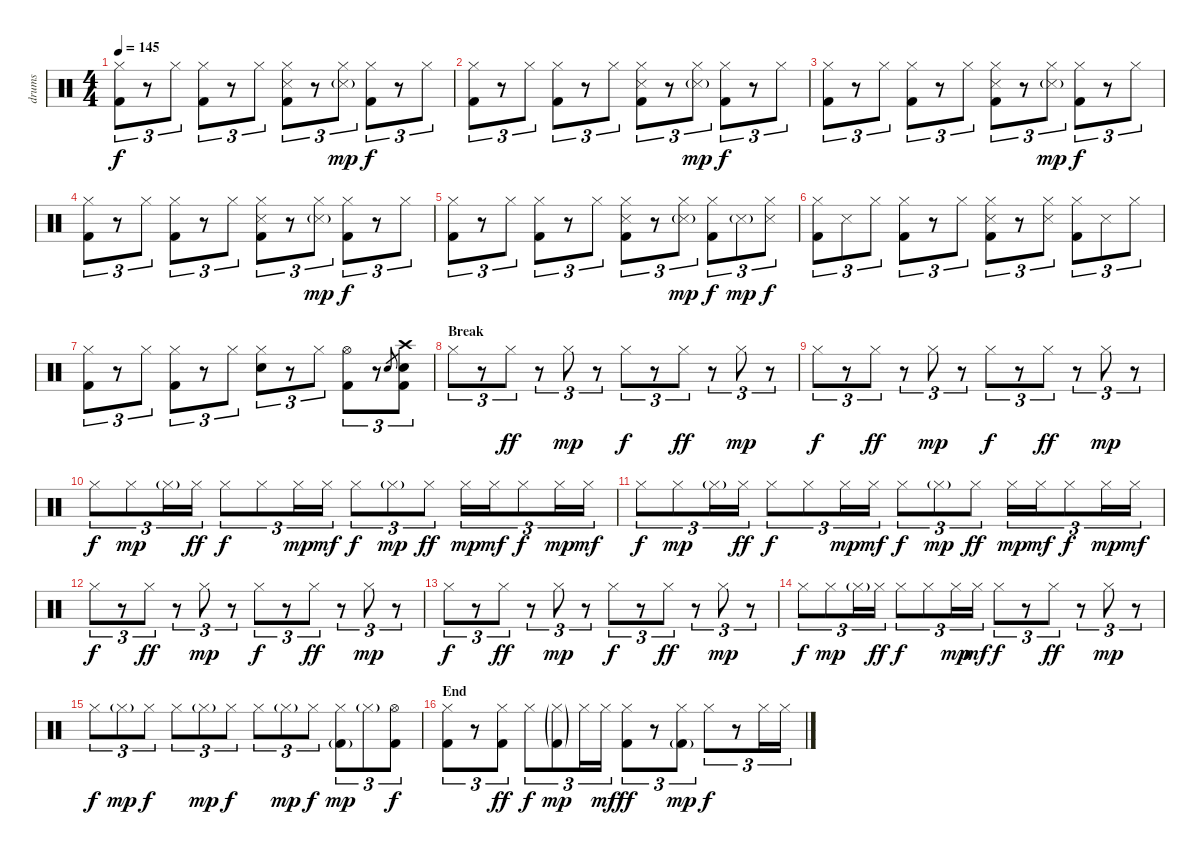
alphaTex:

\track ("drums" "drums") {instrument percussion}
\staff {score}
\articulation defaults
\ts (4 4)
\tempo 145
\clef neutral
\ks c
("Hi-Hat (closed)" "Kick (hit) 2").8{tu (3 2) dy f} r.8{tu (3 2)} "Hi-Hat (closed)".8{tu (3 2)} ("Hi-Hat (closed)" "Kick (hit) 2").8{tu (3 2)} r.8{tu (3 2)} "Hi-Hat (closed)".8{tu (3 2)} ("Hi-Hat (closed)" "Snare (side stick) 3" "Kick (hit) 2").8{tu (3 2)} r.8{tu (3 2)} ("Hi-Hat (closed)" "Snare (side stick) 3"{g}).8{tu (3 2) dy mp} ("Hi-Hat (closed)" "Kick (hit) 2").8{tu (3 2) dy f} r.8{tu (3 2)} "Hi-Hat (closed)".8{tu (3 2)} |
("Hi-Hat (closed)" "Kick (hit) 2").8{tu (3 2)} r.8{tu (3 2)} "Hi-Hat (closed)".8{tu (3 2)} ("Hi-Hat (closed)" "Kick (hit) 2").8{tu (3 2)} r.8{tu (3 2)} "Hi-Hat (closed)".8{tu (3 2)} ("Hi-Hat (closed)" "Snare (side stick) 3" "Kick (hit) 2").8{tu (3 2)} r.8{tu (3 2)} ("Hi-Hat (closed)" "Snare (side stick) 3"{g}).8{tu (3 2) dy mp} ("Hi-Hat (closed)" "Kick (hit) 2").8{tu (3 2) dy f} r.8{tu (3 2)} "Hi-Hat (closed)".8{tu (3 2)} |
("Hi-Hat (closed)" "Kick (hit) 2").8{tu (3 2)} r.8{tu (3 2)} "Hi-Hat (closed)".8{tu (3 2)} ("Hi-Hat (closed)" "Kick (hit) 2").8{tu (3 2)} r.8{tu (3 2)} "Hi-Hat (closed)".8{tu (3 2)} ("Hi-Hat (closed)" "Snare (side stick) 3" "Kick (hit) 2").8{tu (3 2)} r.8{tu (3 2)} ("Hi-Hat (closed)" "Snare (side stick) 3"{g}).8{tu (3 2) dy mp} ("Hi-Hat (closed)" "Kick (hit) 2").8{tu (3 2) dy f} r.8{tu (3 2)} "Hi-Hat (closed)".8{tu (3 2)} |
("Hi-Hat (closed)" "Kick (hit) 2").8{tu (3 2)} r.8{tu (3 2)} "Hi-Hat (closed)".8{tu (3 2)} ("Hi-Hat (closed)" "Kick (hit) 2").8{tu (3 2)} r.8{tu (3 2)} "Hi-Hat (closed)".8{tu (3 2)} ("Hi-Hat (closed)" "Snare (side stick) 3" "Kick (hit) 2").8{tu (3 2)} r.8{tu (3 2)} ("Hi-Hat (closed)" "Snare (side stick) 3"{g}).8{tu (3 2) dy mp} ("Hi-Hat (closed)" "Kick (hit) 2").8{tu (3 2) dy f} r.8{tu (3 2)} "Hi-Hat (closed)".8{tu (3 2)} |
("Hi-Hat (closed)" "Kick (hit) 2").8{tu (3 2)} r.8{tu (3 2)} "Hi-Hat (closed)".8{tu (3 2)} ("Hi-Hat (closed)" "Kick (hit) 2").8{tu (3 2)} r.8{tu (3 2)} "Hi-Hat (closed)".8{tu (3 2)} ("Hi-Hat (closed)" "Snare (side stick) 3" "Kick (hit) 2").8{tu (3 2)} r.8{tu (3 2)} ("Hi-Hat (closed)" "Snare (side stick) 3"{g}).8{tu (3 2) dy mp} ("Hi-Hat (closed)" "Kick (hit) 2").8{tu (3 2) dy f} "Snare (side stick) 3"{g}.8{tu (3 2) dy mp} ("Hi-Hat (closed)" "Snare (side stick) 3").8{tu (3 2) dy f} |
("Hi-Hat (closed)" "Kick (hit) 2").8{tu (3 2)} "Snare (side stick) 3".8{tu (3 2)} "Hi-Hat (closed)".8{tu (3 2)} ("Hi-Hat (closed)" "Kick (hit) 2").8{tu (3 2)} r.8{tu (3 2)} "Hi-Hat (closed)".8{tu (3 2)} ("Hi-Hat (closed)" "Snare (side stick) 3" "Kick (hit) 2").8{tu (3 2)} r.8{tu (3 2)} ("Hi-Hat (closed)" "Snare (side stick) 3").8{tu (3 2)} ("Hi-Hat (closed)" "Kick (hit) 2").8{tu (3 2)} "Snare (side stick) 3".8{tu (3 2)} "Hi-Hat (closed)".8{tu (3 2)} |
("Hi-Hat (closed)" "Kick (hit) 2").8{tu (3 2)} r.8{tu (3 2)} "Hi-Hat (closed)".8{tu (3 2)} ("Hi-Hat (closed)" "Kick (hit) 2").8{tu (3 2)} r.8{tu (3 2)} "Hi-Hat (closed)".8{tu (3 2)} ("Hi-Hat (closed)" "Snare (hit) 2").8{tu (3 2)} r.8{tu (3 2)} "Hi-Hat (closed)".8{tu (3 2)} ("Hi-Hat (open)" "Kick (hit) 2").8{tu (3 2)} r.8{tu (3 2)} "Snare (hit) 2".8{gr} ("Crash high (hit)" "Snare (hit) 2" "Kick (hit) 2").8{tu (3 2)} |
\section ("" "Break")
"Hi-Hat (closed)".8{tu (3 2)} r.8{tu (3 2)} "Hi-Hat (closed)".8{tu (3 2) dy ff} r.8{tu (3 2)} "Hi-Hat (closed)".8{tu (3 2) dy mp} r.8{tu (3 2)} "Hi-Hat (closed)".8{tu (3 2) dy f} r.8{tu (3 2)} "Hi-Hat (closed)".8{tu (3 2) dy ff} r.8{tu (3 2)} "Hi-Hat (closed)".8{tu (3 2) dy mp} r.8{tu (3 2)} |
"Hi-Hat (closed)".8{tu (3 2) dy f} r.8{tu (3 2)} "Hi-Hat (closed)".8{tu (3 2) dy ff} r.8{tu (3 2)} "Hi-Hat (closed)".8{tu (3 2) dy mp} r.8{tu (3 2)} "Hi-Hat (closed)".8{tu (3 2) dy f} r.8{tu (3 2)} "Hi-Hat (closed)".8{tu (3 2) dy ff} r.8{tu (3 2)} "Hi-Hat (closed)".8{tu (3 2) dy mp} r.8{tu (3 2)} |
"Hi-Hat (closed)".8{tu (3 2) dy f} "Hi-Hat (closed)".8{tu (3 2) dy mp} "Hi-Hat (closed)"{g}.16{tu (3 2)} "Hi-Hat (closed)".16{tu (3 2) dy ff} "Hi-Hat (closed)".8{tu (3 2) dy f} "Hi-Hat (closed)".8{tu (3 2)} "Hi-Hat (closed)".16{tu (3 2) dy mp} "Hi-Hat (closed)".16{tu (3 2) dy mf} "Hi-Hat (closed)".8{tu (3 2) dy f} "Hi-Hat (closed)"{g}.8{tu (3 2) dy mp} "Hi-Hat (closed)".8{tu (3 2) dy ff} "Hi-Hat (closed)".16{tu (3 2) dy mp} "Hi-Hat (closed)".16{tu (3 2) dy mf} "Hi-Hat (closed)".8{tu (3 2) dy f} "Hi-Hat (closed)".16{tu (3 2) dy mp} "Hi-Hat (closed)".16{tu (3 2) dy mf} |
"Hi-Hat (closed)".8{tu (3 2) dy f} "Hi-Hat (closed)".8{tu (3 2) dy mp} "Hi-Hat (closed)"{g}.16{tu (3 2)} "Hi-Hat (closed)".16{tu (3 2) dy ff} "Hi-Hat (closed)".8{tu (3 2) dy f} "Hi-Hat (closed)".8{tu (3 2)} "Hi-Hat (closed)".16{tu (3 2) dy mp} "Hi-Hat (closed)".16{tu (3 2) dy mf} "Hi-Hat (closed)".8{tu (3 2) dy f} "Hi-Hat (closed)"{g}.8{tu (3 2) dy mp} "Hi-Hat (closed)".8{tu (3 2) dy ff} "Hi-Hat (closed)".16{tu (3 2) dy mp} "Hi-Hat (closed)".16{tu (3 2) dy mf} "Hi-Hat (closed)".8{tu (3 2) dy f} "Hi-Hat (closed)".16{tu (3 2) dy mp} "Hi-Hat (closed)".16{tu (3 2) dy mf} |
"Hi-Hat (closed)".8{tu (3 2) dy f} r.8{tu (3 2)} "Hi-Hat (closed)".8{tu (3 2) dy ff} r.8{tu (3 2)} "Hi-Hat (closed)".8{tu (3 2) dy mp} r.8{tu (3 2)} "Hi-Hat (closed)".8{tu (3 2) dy f} r.8{tu (3 2)} "Hi-Hat (closed)".8{tu (3 2) dy ff} r.8{tu (3 2)} "Hi-Hat (closed)".8{tu (3 2) dy mp} r.8{tu (3 2)} |
"Hi-Hat (closed)".8{tu (3 2) dy f} r.8{tu (3 2)} "Hi-Hat (closed)".8{tu (3 2) dy ff} r.8{tu (3 2)} "Hi-Hat (closed)".8{tu (3 2) dy mp} r.8{tu (3 2)} "Hi-Hat (closed)".8{tu (3 2) dy f} r.8{tu (3 2)} "Hi-Hat (closed)".8{tu (3 2) dy ff} r.8{tu (3 2)} "Hi-Hat (closed)".8{tu (3 2) dy mp} r.8{tu (3 2)} |
"Hi-Hat (closed)".8{tu (3 2) dy f} "Hi-Hat (closed)".8{tu (3 2) dy mp} "Hi-Hat (closed)"{g}.16{tu (3 2)} "Hi-Hat (closed)".16{tu (3 2) dy ff} "Hi-Hat (closed)".8{tu (3 2) dy f} "Hi-Hat (closed)".8{tu (3 2)} "Hi-Hat (closed)".16{tu (3 2) dy mp} "Hi-Hat (closed)".16{tu (3 2) dy mf} "Hi-Hat (closed)".8{tu (3 2) dy f} r.8{tu (3 2)} "Hi-Hat (closed)".8{tu (3 2) dy ff} r.8{tu (3 2)} "Hi-Hat (closed)".8{tu (3 2) dy mp} r.8{tu (3 2)} |
"Hi-Hat (closed)".8{tu (3 2) dy f} "Hi-Hat (closed)"{g}.8{tu (3 2) dy mp} "Hi-Hat (closed)".8{tu (3 2) dy f} "Hi-Hat (closed)".8{tu (3 2)} "Hi-Hat (closed)"{g}.8{tu (3 2) dy mp} "Hi-Hat (closed)".8{tu (3 2) dy f} "Hi-Hat (closed)".8{tu (3 2)} "Hi-Hat (closed)"{g}.8{tu (3 2) dy mp} "Hi-Hat (closed)".8{tu (3 2) dy f} ("Hi-Hat (closed)" "Kick (hit) 2"{g}).8{tu (3 2) dy mp} "Hi-Hat (closed)"{g}.8{tu (3 2)} ("Hi-Hat (open)" "Kick (hit) 2").8{tu (3 2) dy f} |
\section ("" "End")
("Hi-Hat (closed)" "Kick (hit) 2").8{tu (3 2)} r.8{tu (3 2)} ("Hi-Hat (closed)" "Kick (hit) 2").8{tu (3 2) dy ff} "Hi-Hat (closed)".8{tu (3 2) dy f} ("Hi-Hat (closed)"{g} "Kick (hit) 2"{g}).8{tu (3 2) dy mp} "Hi-Hat (closed)".16{tu (3 2)} "Hi-Hat (closed)".16{tu (3 2) dy mf} ("Hi-Hat (closed)" "Kick (hit) 2").8{tu (3 2) dy ff} r.8{tu (3 2)} ("Hi-Hat (closed)" "Kick (hit) 2"{g}).8{tu (3 2) dy mp} "Hi-Hat (closed)".8{tu (3 2) dy f} r.8{tu (3 2)} "Hi-Hat (closed)".16{tu (3 2)} "Hi-Hat (closed)".16{tu (3 2)}
